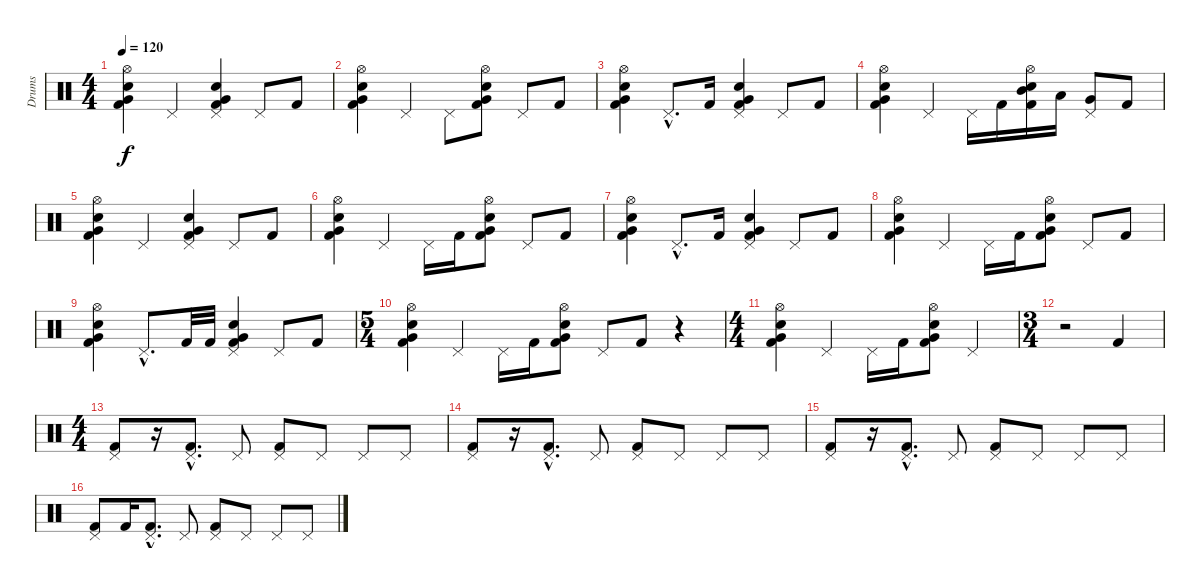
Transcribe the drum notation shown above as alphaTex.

\track ("Drums" "Drums") {instrument percussion}
\staff {score}
\articulation defaults
\ts (4 4)
\tempo 120
\clef neutral
\ks c
("Hi-Hat (open)" "Very Low Tom (hit)" "Electric Snare (hit)" "Kick (hit) 2").4{dy f} "Pedal Hi-Hat (hit)".4 ("Pedal Hi-Hat (hit)" "Very Low Tom (hit)" "Electric Snare (hit)" "Kick (hit) 2").4 "Pedal Hi-Hat (hit)".8 "Kick (hit) 2".8 |
("Hi-Hat (open)" "Very Low Tom (hit)" "Electric Snare (hit)" "Kick (hit) 2").4 "Pedal Hi-Hat (hit)".4 "Pedal Hi-Hat (hit)".8 ("Hi-Hat (open)" "Very Low Tom (hit)" "Electric Snare (hit)" "Kick (hit) 2").8 "Pedal Hi-Hat (hit)".8 "Kick (hit) 2".8 |
("Hi-Hat (open)" "Very Low Tom (hit)" "Electric Snare (hit)" "Kick (hit) 2").4 "Pedal Hi-Hat (hit)"{hac}.8{d} "Kick (hit) 2".16 ("Pedal Hi-Hat (hit)" "Very Low Tom (hit)" "Electric Snare (hit)" "Kick (hit) 2").4 "Pedal Hi-Hat (hit)".8 "Kick (hit) 2".8 |
("Hi-Hat (open)" "Very Low Tom (hit)" "Electric Snare (hit)" "Kick (hit) 2").4 "Pedal Hi-Hat (hit)".4 "Pedal Hi-Hat (hit)".16 "Kick (hit) 2".16 ("Hi-Hat (open)" "Mid Tom (hit)" "Electric Snare (hit)" "Kick (hit) 2").16 "Low Tom (hit)".16 ("Pedal Hi-Hat (hit)" "Very Low Tom (hit)").8 "Kick (hit) 2".8 |
("Hi-Hat (open)" "Very Low Tom (hit)" "Electric Snare (hit)" "Kick (hit) 2").4 "Pedal Hi-Hat (hit)".4 ("Pedal Hi-Hat (hit)" "Very Low Tom (hit)" "Electric Snare (hit)" "Kick (hit) 2").4 "Pedal Hi-Hat (hit)".8 "Kick (hit) 2".8 |
("Hi-Hat (open)" "Very Low Tom (hit)" "Electric Snare (hit)" "Kick (hit) 2").4 "Pedal Hi-Hat (hit)".4 "Pedal Hi-Hat (hit)".16 "Kick (hit) 2".16 ("Hi-Hat (open)" "Very Low Tom (hit)" "Electric Snare (hit)" "Kick (hit) 2").8 "Pedal Hi-Hat (hit)".8 "Kick (hit) 2".8 |
("Hi-Hat (open)" "Very Low Tom (hit)" "Electric Snare (hit)" "Kick (hit) 2").4 "Pedal Hi-Hat (hit)"{hac}.8{d} "Kick (hit) 2".16 ("Pedal Hi-Hat (hit)" "Very Low Tom (hit)" "Electric Snare (hit)" "Kick (hit) 2").4 "Pedal Hi-Hat (hit)".8 "Kick (hit) 2".8 |
("Hi-Hat (open)" "Very Low Tom (hit)" "Electric Snare (hit)" "Kick (hit) 2").4 "Pedal Hi-Hat (hit)".4 "Pedal Hi-Hat (hit)".16 "Kick (hit) 2".16 ("Hi-Hat (open)" "Very Low Tom (hit)" "Electric Snare (hit)" "Kick (hit) 2").8 "Pedal Hi-Hat (hit)".8 "Kick (hit) 2".8 |
("Hi-Hat (open)" "Very Low Tom (hit)" "Electric Snare (hit)" "Kick (hit) 2").4 "Pedal Hi-Hat (hit)"{hac}.8{d} "Kick (hit) 2".32 "Kick (hit) 2".32 ("Pedal Hi-Hat (hit)" "Very Low Tom (hit)" "Electric Snare (hit)" "Kick (hit) 2").4 "Pedal Hi-Hat (hit)".8 "Kick (hit) 2".8 |
\ts (5 4)
("Hi-Hat (open)" "Very Low Tom (hit)" "Electric Snare (hit)" "Kick (hit) 2").4 "Pedal Hi-Hat (hit)".4 "Pedal Hi-Hat (hit)".16 "Kick (hit) 2".16 ("Hi-Hat (open)" "Very Low Tom (hit)" "Electric Snare (hit)" "Kick (hit) 2").8 "Pedal Hi-Hat (hit)".8 "Kick (hit) 2".8 r.4 |
\ts (4 4)
("Hi-Hat (open)" "Very Low Tom (hit)" "Electric Snare (hit)" "Kick (hit) 2").4 "Pedal Hi-Hat (hit)".4 "Pedal Hi-Hat (hit)".16 "Kick (hit) 2".16 ("Hi-Hat (open)" "Very Low Tom (hit)" "Electric Snare (hit)" "Kick (hit) 2").8 "Pedal Hi-Hat (hit)".4 |
\ts (3 4)
r.2 "Kick (hit) 2".4 |
\ts (4 4)
("Pedal Hi-Hat (hit)" "Kick (hit) 2").8 r.16 ("Pedal Hi-Hat (hit)"{hac} "Kick (hit) 2"{hac}).8{d} "Pedal Hi-Hat (hit)".8 ("Pedal Hi-Hat (hit)" "Kick (hit) 2").8 "Pedal Hi-Hat (hit)".8 "Pedal Hi-Hat (hit)".8 "Pedal Hi-Hat (hit)".8 |
("Pedal Hi-Hat (hit)" "Kick (hit) 2").8 r.16 ("Pedal Hi-Hat (hit)"{hac} "Kick (hit) 2"{hac}).8{d} "Pedal Hi-Hat (hit)".8 ("Pedal Hi-Hat (hit)" "Kick (hit) 2").8 "Pedal Hi-Hat (hit)".8 "Pedal Hi-Hat (hit)".8 "Pedal Hi-Hat (hit)".8 |
("Pedal Hi-Hat (hit)" "Kick (hit) 2").8 r.16 ("Pedal Hi-Hat (hit)"{hac} "Kick (hit) 2"{hac}).8{d} "Pedal Hi-Hat (hit)".8 ("Pedal Hi-Hat (hit)" "Kick (hit) 2").8 "Pedal Hi-Hat (hit)".8 "Pedal Hi-Hat (hit)".8 "Pedal Hi-Hat (hit)".8 |
("Pedal Hi-Hat (hit)" "Kick (hit) 2").8 "Kick (hit) 2".16 ("Pedal Hi-Hat (hit)"{hac} "Kick (hit) 2"{hac}).8{d} "Pedal Hi-Hat (hit)".8 ("Pedal Hi-Hat (hit)" "Kick (hit) 2").8 "Pedal Hi-Hat (hit)".8 "Pedal Hi-Hat (hit)".8 "Pedal Hi-Hat (hit)".8
